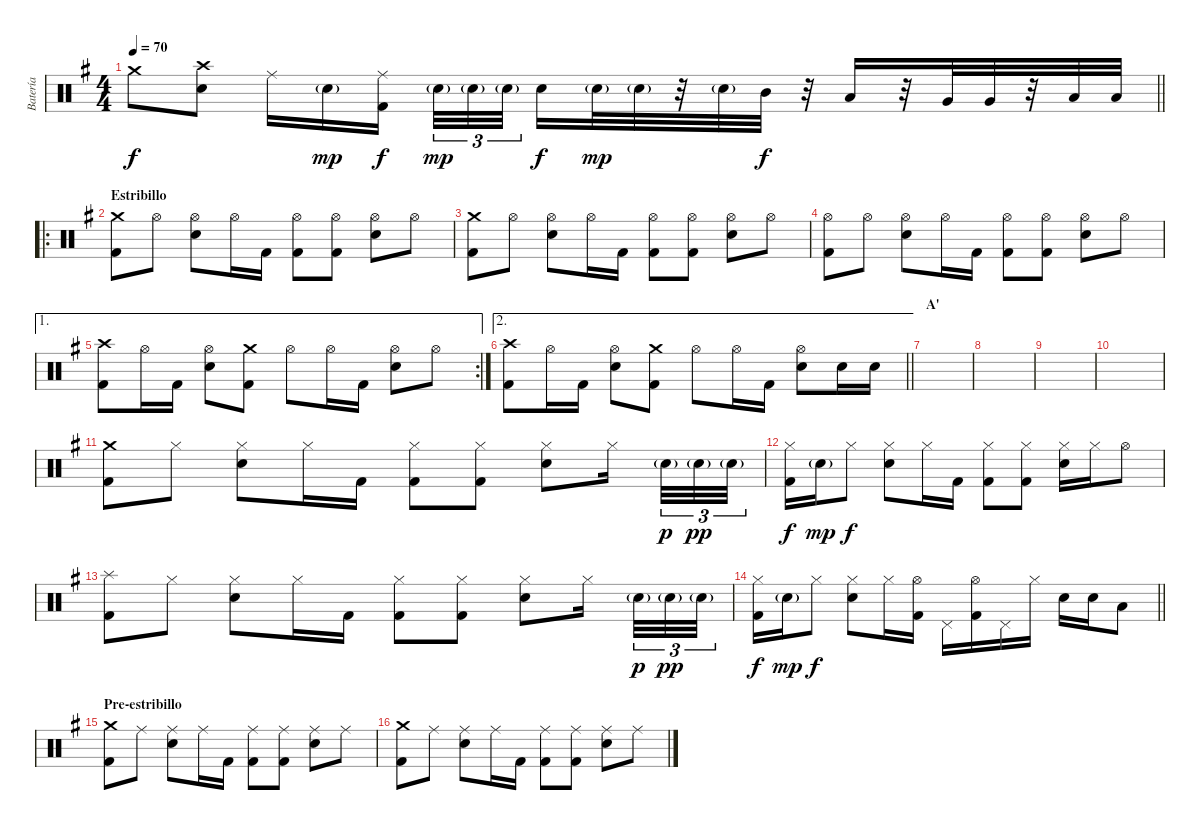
\track ("Batería" "Batería") {instrument percussion}
\staff {score}
\articulation defaults
\ts (4 4)
\tempo 70
\clef neutral
\barLineRight lightlight
\ks g "Crash medium (hit)".8{dy f}
("Crash high (hit)" "Electric Snare (hit)").8 "Ride (middle)".16 "Electric Snare (hit)"{g}.16{dy mp} ("Ride (middle)" "Kick (hit) 2").16{dy f beam splitsecondary} "Electric Snare (hit)"{g}.32{tu (3 2) dy mp} "Electric Snare (hit)"{g}.32{tu (3 2)} "Electric Snare (hit)"{g}.32{tu (3 2)} "Electric Snare (hit)".16{dy f} "Electric Snare (hit)"{g}.32{dy mp} "Electric Snare (hit)"{g}.32 r.32 "Electric Snare (hit)"{g}.32 "Mid Tom (hit)".32{dy f} r.32 "Low Tom (hit)".16 r.32 "Very Low Tom (hit)".32 "Very Low Tom (hit)".32 r.32 "Low Floor Tom (hit)".32 "Low Floor Tom (hit)".32 |
\ro
\section ("" "Estribillo")
("Crash medium (hit)" "Kick (hit) 2").8 "Hi-Hat (open)".8 ("Hi-Hat (open)" "Electric Snare (hit)").8 "Hi-Hat (open)".16 "Kick (hit) 2".16 ("Hi-Hat (open)" "Kick (hit) 2").8 ("Hi-Hat (open)" "Kick (hit) 2").8 ("Hi-Hat (open)" "Electric Snare (hit)").8 "Hi-Hat (open)".8 |
("Crash medium (hit)" "Kick (hit) 2").8 "Hi-Hat (open)".8 ("Hi-Hat (open)" "Electric Snare (hit)").8 "Hi-Hat (open)".16 "Kick (hit) 2".16 ("Hi-Hat (open)" "Kick (hit) 2").8 ("Hi-Hat (open)" "Kick (hit) 2").8 ("Hi-Hat (open)" "Electric Snare (hit)").8 "Hi-Hat (open)".8 |
("Hi-Hat (open)" "Kick (hit) 2").8 "Hi-Hat (open)".8 ("Hi-Hat (open)" "Electric Snare (hit)").8 "Hi-Hat (open)".16 "Kick (hit) 2".16 ("Hi-Hat (open)" "Kick (hit) 2").8 ("Hi-Hat (open)" "Kick (hit) 2").8 ("Hi-Hat (open)" "Electric Snare (hit)").8 "Hi-Hat (open)".8 |
\ae 1
\rc 2
("Crash high (hit)" "Kick (hit) 2").8 "Hi-Hat (open)".16 "Kick (hit) 2".16 ("Hi-Hat (open)" "Electric Snare (hit)").8 ("Crash medium (hit)" "Kick (hit) 2").8 "Hi-Hat (open)".8 "Hi-Hat (open)".16 "Kick (hit) 2".16 ("Hi-Hat (open)" "Electric Snare (hit)").8 "Hi-Hat (open)".8 |
\ae 2
\barLineRight lightlight
("Crash high (hit)" "Kick (hit) 2").8 "Hi-Hat (open)".16 "Kick (hit) 2".16 ("Hi-Hat (open)" "Electric Snare (hit)").8 ("Crash medium (hit)" "Kick (hit) 2").8 "Hi-Hat (open)".8 "Hi-Hat (open)".16 "Kick (hit) 2".16 ("Hi-Hat (open)" "Electric Snare (hit)").8 "Electric Snare (hit)".16 "Electric Snare (hit)".16 |
\section ("" "A'")
|
|
|
|
("Crash medium (hit)" "Kick (hit) 2").8 "Hi-Hat (closed)".8 ("Hi-Hat (closed)" "Electric Snare (hit)").8 "Hi-Hat (closed)".16 "Kick (hit) 2".16 ("Hi-Hat (closed)" "Kick (hit) 2").8 ("Hi-Hat (closed)" "Kick (hit) 2").8 ("Hi-Hat (closed)" "Electric Snare (hit)").8 "Hi-Hat (closed)".16{beam splitsecondary} "Electric Snare (hit)"{g}.32{tu (3 2) dy p} "Electric Snare (hit)"{g}.32{tu (3 2) dy pp} "Electric Snare (hit)"{g}.32{tu (3 2)} |
("Hi-Hat (closed)" "Kick (hit) 2").16{dy f} "Electric Snare (hit)"{g}.16{dy mp} "Hi-Hat (closed)".8{dy f} ("Hi-Hat (closed)" "Electric Snare (hit)").8 "Hi-Hat (closed)".16 "Kick (hit) 2".16 ("Hi-Hat (closed)" "Kick (hit) 2").8 ("Hi-Hat (closed)" "Kick (hit) 2").8 ("Hi-Hat (closed)" "Electric Snare (hit)").16 "Hi-Hat (closed)".16 "Hi-Hat (open)".8 |
("Splash (hit)" "Kick (hit) 2").8 "Hi-Hat (closed)".8 ("Hi-Hat (closed)" "Electric Snare (hit)").8 "Hi-Hat (closed)".16 "Kick (hit) 2".16 ("Hi-Hat (closed)" "Kick (hit) 2").8 ("Hi-Hat (closed)" "Kick (hit) 2").8 ("Hi-Hat (closed)" "Electric Snare (hit)").8 "Hi-Hat (closed)".16{beam splitsecondary} "Electric Snare (hit)"{g}.32{tu (3 2) dy p} "Electric Snare (hit)"{g}.32{tu (3 2) dy pp} "Electric Snare (hit)"{g}.32{tu (3 2)} |
\barLineRight lightlight
("Hi-Hat (closed)" "Kick (hit) 2").16{dy f} "Electric Snare (hit)"{g}.16{dy mp} "Hi-Hat (closed)".8{dy f} ("Hi-Hat (closed)" "Electric Snare (hit)").8 "Hi-Hat (closed)".16 ("Hi-Hat (open)" "Kick (hit) 2").16 "Pedal Hi-Hat (hit)".16 ("Hi-Hat (open)" "Kick (hit) 2").16 "Pedal Hi-Hat (hit)".16 "Hi-Hat (closed)".16 "Electric Snare (hit)".16 "Electric Snare (hit)".16 "Low Tom (hit)".8 |
\section ("" "Pre-estribillo")
("Crash medium (hit)" "Kick (hit) 2").8 "Ride (middle)".8 ("Ride (middle)" "Electric Snare (hit)").8 "Ride (middle)".16 "Kick (hit) 2".16 ("Ride (middle)" "Kick (hit) 2").8 ("Ride (middle)" "Kick (hit) 2").8 ("Ride (middle)" "Electric Snare (hit)").8 "Ride (middle)".8 |
("Crash medium (hit)" "Kick (hit) 2").8 "Ride (middle)".8 ("Ride (middle)" "Electric Snare (hit)").8 "Ride (middle)".16 "Kick (hit) 2".16 ("Ride (middle)" "Kick (hit) 2").8 ("Ride (middle)" "Kick (hit) 2").8 ("Ride (middle)" "Electric Snare (hit)").8 "Ride (middle)".8
